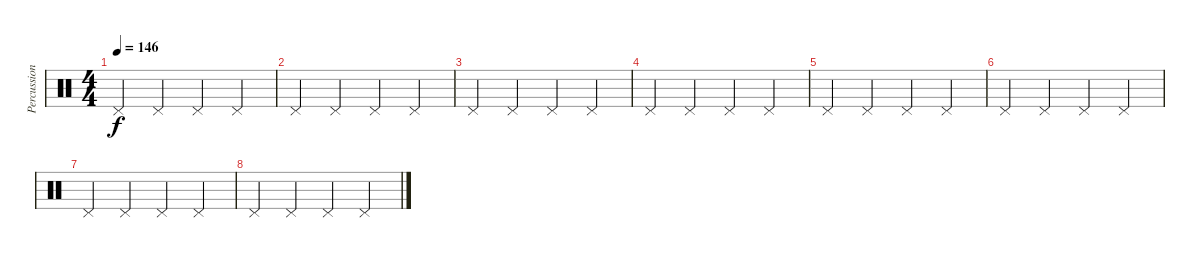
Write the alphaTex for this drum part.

\track ("Percussion" "Percussion") {instrument percussion}
\staff {score}
\articulation defaults
\ts (4 4)
\tempo 146
\clef neutral
\ks c "Pedal Hi-Hat (hit)".4{dy f} "Pedal Hi-Hat (hit)".4 "Pedal Hi-Hat (hit)".4 "Pedal Hi-Hat (hit)".4
|
"Pedal Hi-Hat (hit)".4 "Pedal Hi-Hat (hit)".4 "Pedal Hi-Hat (hit)".4 "Pedal Hi-Hat (hit)".4 |
"Pedal Hi-Hat (hit)".4 "Pedal Hi-Hat (hit)".4 "Pedal Hi-Hat (hit)".4 "Pedal Hi-Hat (hit)".4 |
"Pedal Hi-Hat (hit)".4 "Pedal Hi-Hat (hit)".4 "Pedal Hi-Hat (hit)".4 "Pedal Hi-Hat (hit)".4 |
"Pedal Hi-Hat (hit)".4 "Pedal Hi-Hat (hit)".4 "Pedal Hi-Hat (hit)".4 "Pedal Hi-Hat (hit)".4 |
"Pedal Hi-Hat (hit)".4 "Pedal Hi-Hat (hit)".4 "Pedal Hi-Hat (hit)".4 "Pedal Hi-Hat (hit)".4 |
"Pedal Hi-Hat (hit)".4 "Pedal Hi-Hat (hit)".4 "Pedal Hi-Hat (hit)".4 "Pedal Hi-Hat (hit)".4 |
"Pedal Hi-Hat (hit)".4 "Pedal Hi-Hat (hit)".4 "Pedal Hi-Hat (hit)".4 "Pedal Hi-Hat (hit)".4
